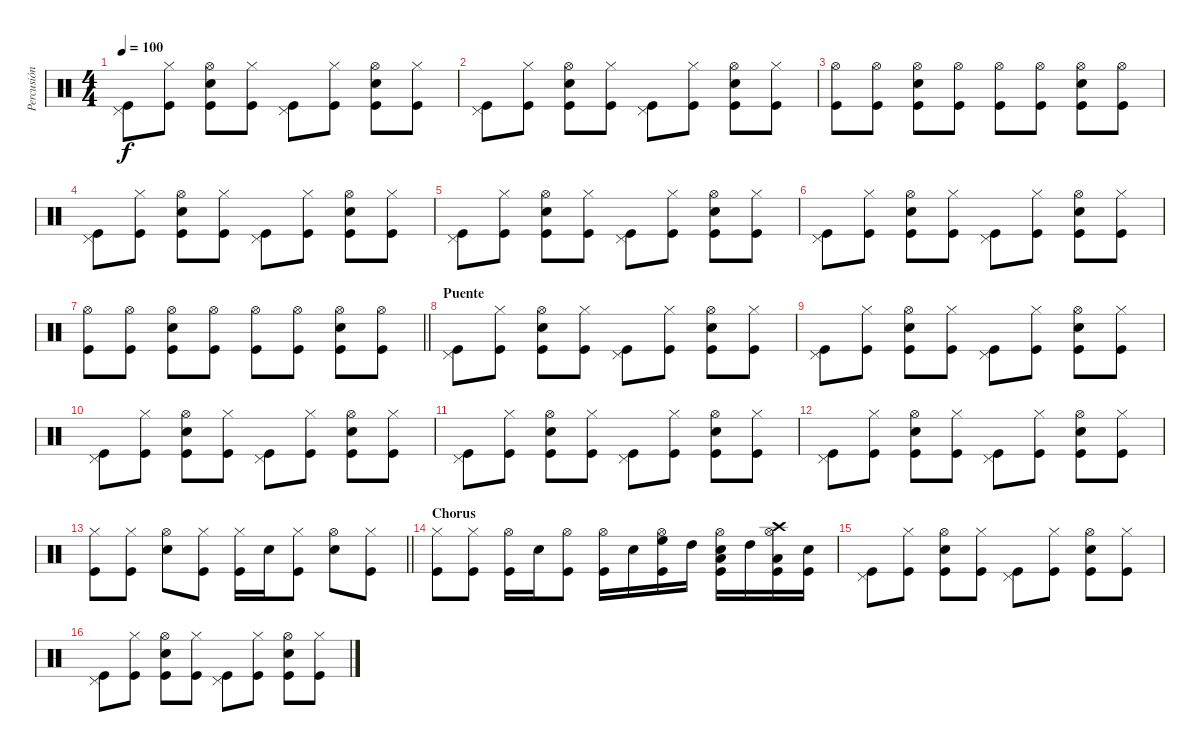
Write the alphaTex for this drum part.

\track ("Percusión" "Percusión") {instrument percussion}
\staff {score}
\articulation defaults
\ts (4 4)
\tempo 100
\clef neutral
\ks c
("Kick (hit)" "Pedal Hi-Hat (hit)").8{dy f} ("Kick (hit)" "Hi-Hat (closed)").8 ("Snare (hit) 2" "Kick (hit)" "Hi-Hat (open)").8 ("Kick (hit)" "Hi-Hat (closed)").8 ("Kick (hit)" "Pedal Hi-Hat (hit)").8 ("Kick (hit)" "Hi-Hat (closed)").8 ("Snare (hit) 2" "Kick (hit)" "Hi-Hat (open)").8 ("Kick (hit)" "Hi-Hat (closed)").8 |
("Kick (hit)" "Pedal Hi-Hat (hit)").8 ("Kick (hit)" "Hi-Hat (closed)").8 ("Snare (hit) 2" "Kick (hit)" "Hi-Hat (open)").8 ("Kick (hit)" "Hi-Hat (closed)").8 ("Kick (hit)" "Pedal Hi-Hat (hit)").8 ("Kick (hit)" "Hi-Hat (closed)").8 ("Snare (hit) 2" "Kick (hit)" "Hi-Hat (open)").8 ("Kick (hit)" "Hi-Hat (closed)").8 |
("Kick (hit)" "Hi-Hat (open)").8 ("Kick (hit)" "Hi-Hat (open)").8 ("Snare (hit) 2" "Kick (hit)" "Hi-Hat (open)").8 ("Kick (hit)" "Hi-Hat (open)").8 ("Kick (hit)" "Hi-Hat (open)").8 ("Kick (hit)" "Hi-Hat (open)").8 ("Snare (hit) 2" "Kick (hit)" "Hi-Hat (open)").8 ("Kick (hit)" "Hi-Hat (open)").8 |
("Kick (hit)" "Pedal Hi-Hat (hit)").8 ("Kick (hit)" "Hi-Hat (closed)").8 ("Snare (hit) 2" "Kick (hit)" "Hi-Hat (open)").8 ("Kick (hit)" "Hi-Hat (closed)").8 ("Kick (hit)" "Pedal Hi-Hat (hit)").8 ("Kick (hit)" "Hi-Hat (closed)").8 ("Snare (hit) 2" "Kick (hit)" "Hi-Hat (open)").8 ("Kick (hit)" "Hi-Hat (closed)").8 |
("Kick (hit)" "Pedal Hi-Hat (hit)").8 ("Kick (hit)" "Hi-Hat (closed)").8 ("Snare (hit) 2" "Kick (hit)" "Hi-Hat (open)").8 ("Kick (hit)" "Hi-Hat (closed)").8 ("Kick (hit)" "Pedal Hi-Hat (hit)").8 ("Kick (hit)" "Hi-Hat (closed)").8 ("Snare (hit) 2" "Kick (hit)" "Hi-Hat (open)").8 ("Kick (hit)" "Hi-Hat (closed)").8 |
("Kick (hit)" "Pedal Hi-Hat (hit)").8 ("Kick (hit)" "Hi-Hat (closed)").8 ("Snare (hit) 2" "Kick (hit)" "Hi-Hat (open)").8 ("Kick (hit)" "Hi-Hat (closed)").8 ("Kick (hit)" "Pedal Hi-Hat (hit)").8 ("Kick (hit)" "Hi-Hat (closed)").8 ("Snare (hit) 2" "Kick (hit)" "Hi-Hat (open)").8 ("Kick (hit)" "Hi-Hat (closed)").8 |
\barLineRight lightlight
("Kick (hit)" "Hi-Hat (open)").8 ("Kick (hit)" "Hi-Hat (open)").8 ("Snare (hit) 2" "Kick (hit)" "Hi-Hat (open)").8 ("Kick (hit)" "Hi-Hat (open)").8 ("Kick (hit)" "Hi-Hat (open)").8 ("Kick (hit)" "Hi-Hat (open)").8 ("Snare (hit) 2" "Kick (hit)" "Hi-Hat (open)").8 ("Kick (hit)" "Hi-Hat (open)").8 |
\section ("" "Puente")
("Kick (hit)" "Pedal Hi-Hat (hit)").8 ("Kick (hit)" "Hi-Hat (closed)").8 ("Snare (hit) 2" "Kick (hit)" "Hi-Hat (open)").8 ("Kick (hit)" "Hi-Hat (closed)").8 ("Kick (hit)" "Pedal Hi-Hat (hit)").8 ("Kick (hit)" "Hi-Hat (closed)").8 ("Snare (hit) 2" "Kick (hit)" "Hi-Hat (open)").8 ("Kick (hit)" "Hi-Hat (closed)").8 |
("Kick (hit)" "Pedal Hi-Hat (hit)").8 ("Kick (hit)" "Hi-Hat (closed)").8 ("Snare (hit) 2" "Kick (hit)" "Hi-Hat (open)").8 ("Kick (hit)" "Hi-Hat (closed)").8 ("Kick (hit)" "Pedal Hi-Hat (hit)").8 ("Kick (hit)" "Hi-Hat (closed)").8 ("Snare (hit) 2" "Kick (hit)" "Hi-Hat (open)").8 ("Kick (hit)" "Hi-Hat (closed)").8 |
("Kick (hit)" "Pedal Hi-Hat (hit)").8 ("Kick (hit)" "Hi-Hat (closed)").8 ("Snare (hit) 2" "Kick (hit)" "Hi-Hat (open)").8 ("Kick (hit)" "Hi-Hat (closed)").8 ("Kick (hit)" "Pedal Hi-Hat (hit)").8 ("Kick (hit)" "Hi-Hat (closed)").8 ("Snare (hit) 2" "Kick (hit)" "Hi-Hat (open)").8 ("Kick (hit)" "Hi-Hat (closed)").8 |
("Kick (hit)" "Pedal Hi-Hat (hit)").8 ("Kick (hit)" "Hi-Hat (closed)").8 ("Snare (hit) 2" "Kick (hit)" "Hi-Hat (open)").8 ("Kick (hit)" "Hi-Hat (closed)").8 ("Kick (hit)" "Pedal Hi-Hat (hit)").8 ("Kick (hit)" "Hi-Hat (closed)").8 ("Snare (hit) 2" "Kick (hit)" "Hi-Hat (open)").8 ("Kick (hit)" "Hi-Hat (closed)").8 |
("Kick (hit)" "Pedal Hi-Hat (hit)").8 ("Kick (hit)" "Hi-Hat (closed)").8 ("Snare (hit) 2" "Kick (hit)" "Hi-Hat (open)").8 ("Kick (hit)" "Hi-Hat (closed)").8 ("Kick (hit)" "Pedal Hi-Hat (hit)").8 ("Kick (hit)" "Hi-Hat (closed)").8 ("Snare (hit) 2" "Kick (hit)" "Hi-Hat (open)").8 ("Kick (hit)" "Hi-Hat (closed)").8 |
\barLineRight lightlight
("Kick (hit)" "Hi-Hat (closed)").8 ("Kick (hit)" "Hi-Hat (closed)").8 ("Snare (hit) 2" "Hi-Hat (open)").8 ("Kick (hit)" "Hi-Hat (closed)").8 ("Kick (hit)" "Hi-Hat (closed)").16 "Snare (hit) 2".16 ("Kick (hit)" "Hi-Hat (closed)").8 ("Snare (hit) 2" "Hi-Hat (open)").8 ("Kick (hit)" "Hi-Hat (closed)").8 |
\section ("" "Chorus")
("Kick (hit)" "Hi-Hat (closed)").8 ("Kick (hit)" "Hi-Hat (closed)").8 ("Kick (hit)" "Hi-Hat (open)").16 "Snare (hit) 2".16 ("Kick (hit)" "Hi-Hat (open)").8 ("Kick (hit)" "Hi-Hat (open)").16 "Snare (hit) 2".16 ("High Floor Tom (hit)" "Kick (hit)" "Hi-Hat (open)").16 "High Tom (hit)".16 ("Snare (hit) 2" "Low Tom (hit)" "Kick (hit)" "Hi-Hat (open)").16 "High Tom (hit)".16 ("Crash high (hit)" "Low Tom (hit)" "Kick (hit)" "Hi-Hat (open)").16 ("Snare (hit) 2" "Kick (hit)").16 |
("Kick (hit)" "Pedal Hi-Hat (hit)").8 ("Kick (hit)" "Hi-Hat (closed)").8 ("Snare (hit) 2" "Kick (hit)" "Hi-Hat (open)").8 ("Kick (hit)" "Hi-Hat (closed)").8 ("Kick (hit)" "Pedal Hi-Hat (hit)").8 ("Kick (hit)" "Hi-Hat (closed)").8 ("Snare (hit) 2" "Kick (hit)" "Hi-Hat (open)").8 ("Kick (hit)" "Hi-Hat (closed)").8 |
("Kick (hit)" "Pedal Hi-Hat (hit)").8 ("Kick (hit)" "Hi-Hat (closed)").8 ("Snare (hit) 2" "Kick (hit)" "Hi-Hat (open)").8 ("Kick (hit)" "Hi-Hat (closed)").8 ("Kick (hit)" "Pedal Hi-Hat (hit)").8 ("Kick (hit)" "Hi-Hat (closed)").8 ("Snare (hit) 2" "Kick (hit)" "Hi-Hat (open)").8 ("Kick (hit)" "Hi-Hat (closed)").8
